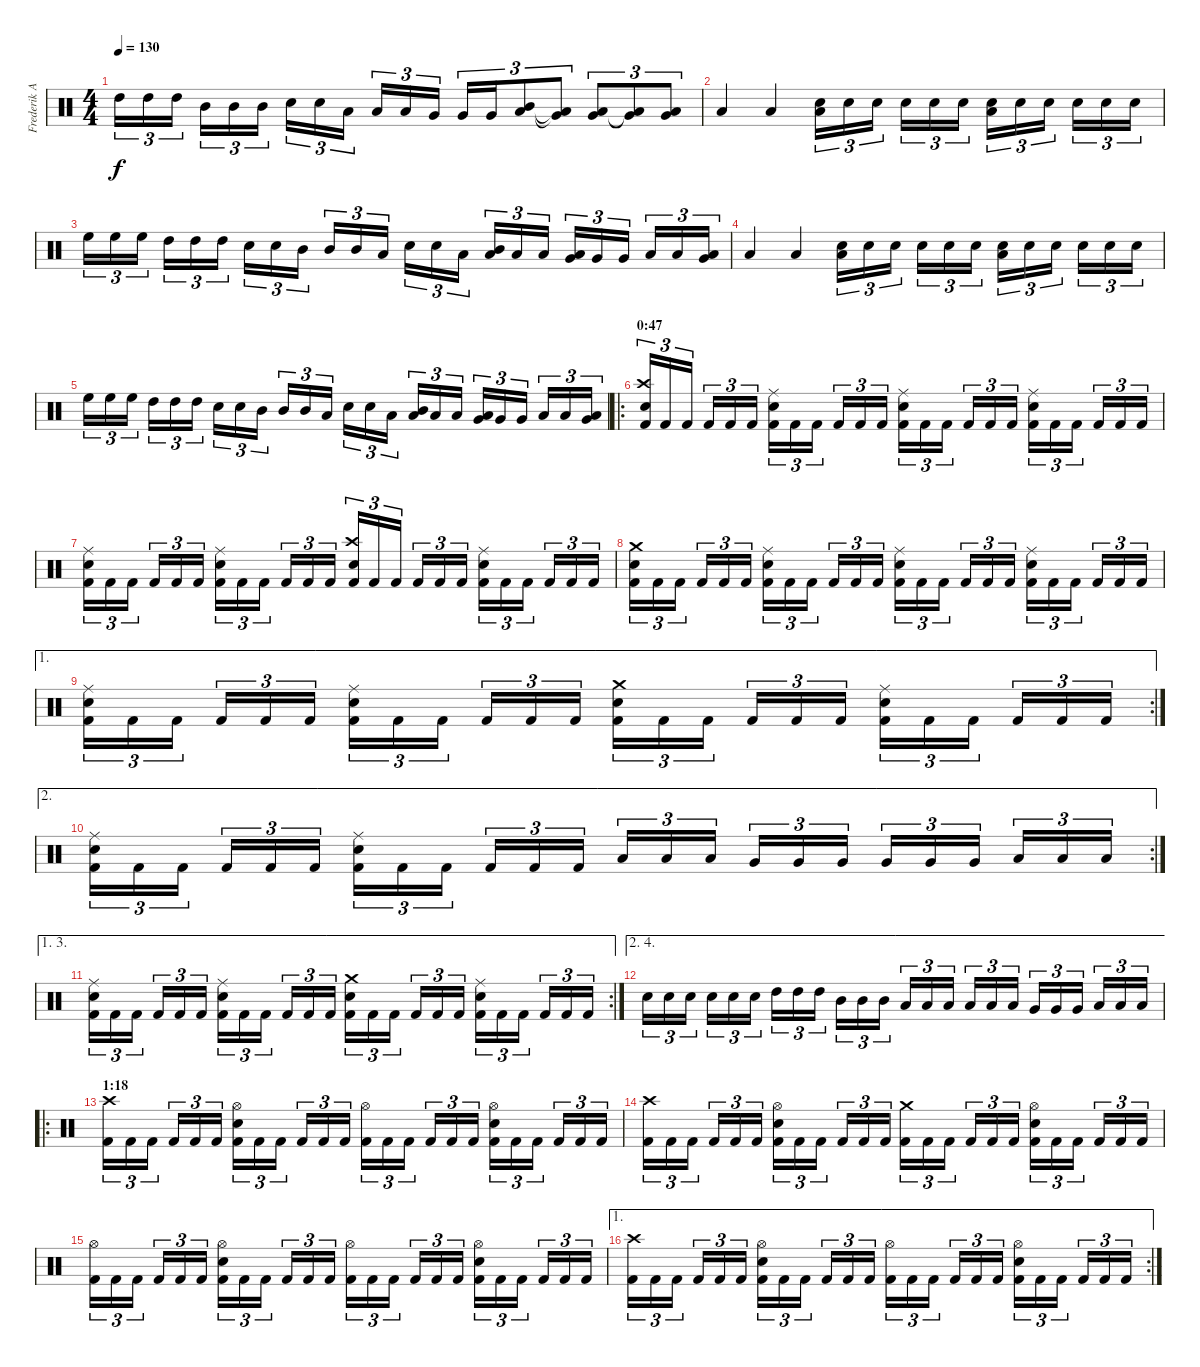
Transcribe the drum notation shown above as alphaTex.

\track ("Frederik Anderson" "Frederik A") {instrument percussion}
\staff {score}
\articulation defaults
\ts (4 4)
\tempo 130
\clef neutral
\ks c "High Tom (hit)".16{tu (3 2) dy f} "High Tom (hit)".16{tu (3 2)} "High Tom (hit)".16{tu (3 2)} "Mid Tom (hit)".16{tu (3 2)} "Mid Tom (hit)".16{tu (3 2)} "Mid Tom (hit)".16{tu (3 2)} "Electric Snare (hit)".16{tu (3 2)} "Electric Snare (hit)".16{tu (3 2)} "Low Tom (hit)".16{tu (3 2)} "Low Tom (hit)".16{tu (3 2)} "Low Tom (hit)".16{tu (3 2)} "Very Low Tom (hit)".16{tu (3 2)} "Very Low Tom (hit)".16{tu (3 2)} "Very Low Tom (hit)".16{tu (3 2)}
("Mid Tom (hit)" "Low Tom (hit)").8{tu (3 2)} ("Low Tom (hit)"{t} "Very Low Tom (hit)"{t}).8{tu (3 2)} ("Low Tom (hit)" "Very Low Tom (hit)").8{tu (3 2)} ("Very Low Tom (hit)"{t} "Low Floor Tom (hit)"{t}).8{tu (3 2)} ("Very Low Tom (hit)" "Low Floor Tom (hit)").8{tu (3 2)} |
"Low Floor Tom (hit)".4 "Low Floor Tom (hit)".4 ("Low Floor Tom (hit)" "Electric Snare (hit)").16{tu (3 2)} "Electric Snare (hit)".16{tu (3 2)} "Electric Snare (hit)".16{tu (3 2)} "Electric Snare (hit)".16{tu (3 2)} "Electric Snare (hit)".16{tu (3 2)} "Electric Snare (hit)".16{tu (3 2)} ("Low Floor Tom (hit)" "Electric Snare (hit)").16{tu (3 2)} "Electric Snare (hit)".16{tu (3 2)} "Electric Snare (hit)".16{tu (3 2)} "Electric Snare (hit)".16{tu (3 2)} "Electric Snare (hit)".16{tu (3 2)} "Electric Snare (hit)".16{tu (3 2)} |
"High Floor Tom (hit)".16{tu (3 2)} "High Floor Tom (hit)".16{tu (3 2)} "High Floor Tom (hit)".16{tu (3 2)} "High Tom (hit)".16{tu (3 2)} "High Tom (hit)".16{tu (3 2)} "High Tom (hit)".16{tu (3 2)} "Electric Snare (hit)".16{tu (3 2)} "Electric Snare (hit)".16{tu (3 2)} "Mid Tom (hit)".16{tu (3 2)} "Mid Tom (hit)".16{tu (3 2)} "Mid Tom (hit)".16{tu (3 2)} "Low Tom (hit)".16{tu (3 2)} "Electric Snare (hit)".16{tu (3 2)} "Electric Snare (hit)".16{tu (3 2)} "Low Tom (hit)".16{tu (3 2)} ("Mid Tom (hit)" "Low Tom (hit)").16{tu (3 2)} "Low Tom (hit)".16{tu (3 2)} "Low Tom (hit)".16{tu (3 2)} ("Low Tom (hit)" "Very Low Tom (hit)").16{tu (3 2)} "Very Low Tom (hit)".16{tu (3 2)} "Very Low Tom (hit)".16{tu (3 2)} "Low Floor Tom (hit)".16{tu (3 2)} "Low Floor Tom (hit)".16{tu (3 2)} ("Very Low Tom (hit)" "Low Floor Tom (hit)").16{tu (3 2)} |
"Low Floor Tom (hit)".4 "Low Floor Tom (hit)".4 ("Low Floor Tom (hit)" "Electric Snare (hit)").16{tu (3 2)} "Electric Snare (hit)".16{tu (3 2)} "Electric Snare (hit)".16{tu (3 2)} "Electric Snare (hit)".16{tu (3 2)} "Electric Snare (hit)".16{tu (3 2)} "Electric Snare (hit)".16{tu (3 2)} ("Low Floor Tom (hit)" "Electric Snare (hit)").16{tu (3 2)} "Electric Snare (hit)".16{tu (3 2)} "Electric Snare (hit)".16{tu (3 2)} "Electric Snare (hit)".16{tu (3 2)} "Electric Snare (hit)".16{tu (3 2)} "Electric Snare (hit)".16{tu (3 2)} |
"High Floor Tom (hit)".16{tu (3 2)} "High Floor Tom (hit)".16{tu (3 2)} "High Floor Tom (hit)".16{tu (3 2)} "High Tom (hit)".16{tu (3 2)} "High Tom (hit)".16{tu (3 2)} "High Tom (hit)".16{tu (3 2)} "Electric Snare (hit)".16{tu (3 2)} "Electric Snare (hit)".16{tu (3 2)} "Mid Tom (hit)".16{tu (3 2)} "Mid Tom (hit)".16{tu (3 2)} "Mid Tom (hit)".16{tu (3 2)} "Low Tom (hit)".16{tu (3 2)} "Electric Snare (hit)".16{tu (3 2)} "Electric Snare (hit)".16{tu (3 2)} "Low Tom (hit)".16{tu (3 2)} ("Mid Tom (hit)" "Low Tom (hit)").16{tu (3 2)} "Low Tom (hit)".16{tu (3 2)} "Low Tom (hit)".16{tu (3 2)} ("Low Tom (hit)" "Very Low Tom (hit)").16{tu (3 2)} "Very Low Tom (hit)".16{tu (3 2)} "Very Low Tom (hit)".16{tu (3 2)} "Low Floor Tom (hit)".16{tu (3 2)} "Low Floor Tom (hit)".16{tu (3 2)} ("Very Low Tom (hit)" "Low Floor Tom (hit)").16{tu (3 2)} |
\ro
\section ("" "0:47")
("Crash high (hit)" "Electric Snare (hit)" "Kick (hit) 2").16{tu (3 2)} "Kick (hit) 2".16{tu (3 2)} "Kick (hit) 2".16{tu (3 2)} "Kick (hit) 2".16{tu (3 2)} "Kick (hit) 2".16{tu (3 2)} "Kick (hit) 2".16{tu (3 2)} ("Ride (middle)" "Electric Snare (hit)" "Kick (hit) 2").16{tu (3 2)} "Kick (hit) 2".16{tu (3 2)} "Kick (hit) 2".16{tu (3 2)} "Kick (hit) 2".16{tu (3 2)} "Kick (hit) 2".16{tu (3 2)} "Kick (hit) 2".16{tu (3 2)} ("Ride (middle)" "Electric Snare (hit)" "Kick (hit) 2").16{tu (3 2)} "Kick (hit) 2".16{tu (3 2)} "Kick (hit) 2".16{tu (3 2)} "Kick (hit) 2".16{tu (3 2)} "Kick (hit) 2".16{tu (3 2)} "Kick (hit) 2".16{tu (3 2)} ("Ride (middle)" "Electric Snare (hit)" "Kick (hit) 2").16{tu (3 2)} "Kick (hit) 2".16{tu (3 2)} "Kick (hit) 2".16{tu (3 2)} "Kick (hit) 2".16{tu (3 2)} "Kick (hit) 2".16{tu (3 2)} "Kick (hit) 2".16{tu (3 2)} |
("Ride (middle)" "Electric Snare (hit)" "Kick (hit) 2").16{tu (3 2)} "Kick (hit) 2".16{tu (3 2)} "Kick (hit) 2".16{tu (3 2)} "Kick (hit) 2".16{tu (3 2)} "Kick (hit) 2".16{tu (3 2)} "Kick (hit) 2".16{tu (3 2)} ("Ride (middle)" "Electric Snare (hit)" "Kick (hit) 2").16{tu (3 2)} "Kick (hit) 2".16{tu (3 2)} "Kick (hit) 2".16{tu (3 2)} "Kick (hit) 2".16{tu (3 2)} "Kick (hit) 2".16{tu (3 2)} "Kick (hit) 2".16{tu (3 2)} ("Crash high (hit)" "Electric Snare (hit)" "Kick (hit) 2").16{tu (3 2)} "Kick (hit) 2".16{tu (3 2)} "Kick (hit) 2".16{tu (3 2)} "Kick (hit) 2".16{tu (3 2)} "Kick (hit) 2".16{tu (3 2)} "Kick (hit) 2".16{tu (3 2)} ("Ride (middle)" "Electric Snare (hit)" "Kick (hit) 2").16{tu (3 2)} "Kick (hit) 2".16{tu (3 2)} "Kick (hit) 2".16{tu (3 2)} "Kick (hit) 2".16{tu (3 2)} "Kick (hit) 2".16{tu (3 2)} "Kick (hit) 2".16{tu (3 2)} |
("Crash medium (hit)" "Electric Snare (hit)" "Kick (hit) 2").16{tu (3 2)} "Kick (hit) 2".16{tu (3 2)} "Kick (hit) 2".16{tu (3 2)} "Kick (hit) 2".16{tu (3 2)} "Kick (hit) 2".16{tu (3 2)} "Kick (hit) 2".16{tu (3 2)} ("Ride (middle)" "Electric Snare (hit)" "Kick (hit) 2").16{tu (3 2)} "Kick (hit) 2".16{tu (3 2)} "Kick (hit) 2".16{tu (3 2)} "Kick (hit) 2".16{tu (3 2)} "Kick (hit) 2".16{tu (3 2)} "Kick (hit) 2".16{tu (3 2)} ("Ride (middle)" "Electric Snare (hit)" "Kick (hit) 2").16{tu (3 2)} "Kick (hit) 2".16{tu (3 2)} "Kick (hit) 2".16{tu (3 2)} "Kick (hit) 2".16{tu (3 2)} "Kick (hit) 2".16{tu (3 2)} "Kick (hit) 2".16{tu (3 2)} ("Ride (middle)" "Electric Snare (hit)" "Kick (hit) 2").16{tu (3 2)} "Kick (hit) 2".16{tu (3 2)} "Kick (hit) 2".16{tu (3 2)} "Kick (hit) 2".16{tu (3 2)} "Kick (hit) 2".16{tu (3 2)} "Kick (hit) 2".16{tu (3 2)} |
\ae 1
\rc 2
("Ride (middle)" "Electric Snare (hit)" "Kick (hit) 2").16{tu (3 2)} "Kick (hit) 2".16{tu (3 2)} "Kick (hit) 2".16{tu (3 2)} "Kick (hit) 2".16{tu (3 2)} "Kick (hit) 2".16{tu (3 2)} "Kick (hit) 2".16{tu (3 2)} ("Ride (middle)" "Electric Snare (hit)" "Kick (hit) 2").16{tu (3 2)} "Kick (hit) 2".16{tu (3 2)} "Kick (hit) 2".16{tu (3 2)} "Kick (hit) 2".16{tu (3 2)} "Kick (hit) 2".16{tu (3 2)} "Kick (hit) 2".16{tu (3 2)} ("Crash medium (hit)" "Electric Snare (hit)" "Kick (hit) 2").16{tu (3 2)} "Kick (hit) 2".16{tu (3 2)} "Kick (hit) 2".16{tu (3 2)} "Kick (hit) 2".16{tu (3 2)} "Kick (hit) 2".16{tu (3 2)} "Kick (hit) 2".16{tu (3 2)} ("Ride (middle)" "Electric Snare (hit)" "Kick (hit) 2").16{tu (3 2)} "Kick (hit) 2".16{tu (3 2)} "Kick (hit) 2".16{tu (3 2)} "Kick (hit) 2".16{tu (3 2)} "Kick (hit) 2".16{tu (3 2)} "Kick (hit) 2".16{tu (3 2)} |
\ae 2
\rc 2
("Ride (middle)" "Electric Snare (hit)" "Kick (hit) 2").16{tu (3 2)} "Kick (hit) 2".16{tu (3 2)} "Kick (hit) 2".16{tu (3 2)} "Kick (hit) 2".16{tu (3 2)} "Kick (hit) 2".16{tu (3 2)} "Kick (hit) 2".16{tu (3 2)} ("Ride (middle)" "Electric Snare (hit)" "Kick (hit) 2").16{tu (3 2)} "Kick (hit) 2".16{tu (3 2)} "Kick (hit) 2".16{tu (3 2)} "Kick (hit) 2".16{tu (3 2)} "Kick (hit) 2".16{tu (3 2)} "Kick (hit) 2".16{tu (3 2)} "Low Tom (hit)".16{tu (3 2)} "Low Tom (hit)".16{tu (3 2)} "Low Tom (hit)".16{tu (3 2)} "Very Low Tom (hit)".16{tu (3 2)} "Very Low Tom (hit)".16{tu (3 2)} "Very Low Tom (hit)".16{tu (3 2)} "Very Low Tom (hit)".16{tu (3 2)} "Very Low Tom (hit)".16{tu (3 2)} "Very Low Tom (hit)".16{tu (3 2)} "Low Floor Tom (hit)".16{tu (3 2)} "Low Floor Tom (hit)".16{tu (3 2)} "Low Floor Tom (hit)".16{tu (3 2)} |
\ae (1 3)
\rc 2
("Ride (middle)" "Electric Snare (hit)" "Kick (hit) 2").16{tu (3 2)} "Kick (hit) 2".16{tu (3 2)} "Kick (hit) 2".16{tu (3 2)} "Kick (hit) 2".16{tu (3 2)} "Kick (hit) 2".16{tu (3 2)} "Kick (hit) 2".16{tu (3 2)} ("Ride (middle)" "Electric Snare (hit)" "Kick (hit) 2").16{tu (3 2)} "Kick (hit) 2".16{tu (3 2)} "Kick (hit) 2".16{tu (3 2)} "Kick (hit) 2".16{tu (3 2)} "Kick (hit) 2".16{tu (3 2)} "Kick (hit) 2".16{tu (3 2)} ("Crash medium (hit)" "Electric Snare (hit)" "Kick (hit) 2").16{tu (3 2)} "Kick (hit) 2".16{tu (3 2)} "Kick (hit) 2".16{tu (3 2)} "Kick (hit) 2".16{tu (3 2)} "Kick (hit) 2".16{tu (3 2)} "Kick (hit) 2".16{tu (3 2)} ("Ride (middle)" "Electric Snare (hit)" "Kick (hit) 2").16{tu (3 2)} "Kick (hit) 2".16{tu (3 2)} "Kick (hit) 2".16{tu (3 2)} "Kick (hit) 2".16{tu (3 2)} "Kick (hit) 2".16{tu (3 2)} "Kick (hit) 2".16{tu (3 2)} |
\ae (2 4)
"Electric Snare (hit)".16{tu (3 2)} "Electric Snare (hit)".16{tu (3 2)} "Electric Snare (hit)".16{tu (3 2)} "Electric Snare (hit)".16{tu (3 2)} "Electric Snare (hit)".16{tu (3 2)} "Electric Snare (hit)".16{tu (3 2)} "High Tom (hit)".16{tu (3 2)} "High Tom (hit)".16{tu (3 2)} "High Tom (hit)".16{tu (3 2)} "Mid Tom (hit)".16{tu (3 2)} "Mid Tom (hit)".16{tu (3 2)} "Mid Tom (hit)".16{tu (3 2)} "Low Tom (hit)".16{tu (3 2)} "Low Tom (hit)".16{tu (3 2)} "Low Tom (hit)".16{tu (3 2)} "Low Tom (hit)".16{tu (3 2)} "Low Tom (hit)".16{tu (3 2)} "Low Tom (hit)".16{tu (3 2)} "Very Low Tom (hit)".16{tu (3 2)} "Very Low Tom (hit)".16{tu (3 2)} "Very Low Tom (hit)".16{tu (3 2)} "Low Floor Tom (hit)".16{tu (3 2)} "Low Floor Tom (hit)".16{tu (3 2)} "Low Floor Tom (hit)".16{tu (3 2)} |
\ro
\section ("" "1:18")
("Crash high (hit)" "Kick (hit) 2").16{tu (3 2)} "Kick (hit) 2".16{tu (3 2)} "Kick (hit) 2".16{tu (3 2)} "Kick (hit) 2".16{tu (3 2)} "Kick (hit) 2".16{tu (3 2)} "Kick (hit) 2".16{tu (3 2)} ("Hi-Hat (open)" "Electric Snare (hit)" "Kick (hit) 2").16{tu (3 2)} "Kick (hit) 2".16{tu (3 2)} "Kick (hit) 2".16{tu (3 2)} "Kick (hit) 2".16{tu (3 2)} "Kick (hit) 2".16{tu (3 2)} "Kick (hit) 2".16{tu (3 2)} ("Hi-Hat (open)" "Kick (hit) 2").16{tu (3 2)} "Kick (hit) 2".16{tu (3 2)} "Kick (hit) 2".16{tu (3 2)} "Kick (hit) 2".16{tu (3 2)} "Kick (hit) 2".16{tu (3 2)} "Kick (hit) 2".16{tu (3 2)} ("Hi-Hat (open)" "Electric Snare (hit)" "Kick (hit) 2").16{tu (3 2)} "Kick (hit) 2".16{tu (3 2)} "Kick (hit) 2".16{tu (3 2)} "Kick (hit) 2".16{tu (3 2)} "Kick (hit) 2".16{tu (3 2)} "Kick (hit) 2".16{tu (3 2)} |
("Crash high (hit)" "Kick (hit) 2").16{tu (3 2)} "Kick (hit) 2".16{tu (3 2)} "Kick (hit) 2".16{tu (3 2)} "Kick (hit) 2".16{tu (3 2)} "Kick (hit) 2".16{tu (3 2)} "Kick (hit) 2".16{tu (3 2)} ("Hi-Hat (open)" "Electric Snare (hit)" "Kick (hit) 2").16{tu (3 2)} "Kick (hit) 2".16{tu (3 2)} "Kick (hit) 2".16{tu (3 2)} "Kick (hit) 2".16{tu (3 2)} "Kick (hit) 2".16{tu (3 2)} "Kick (hit) 2".16{tu (3 2)} ("Crash medium (hit)" "Kick (hit) 2").16{tu (3 2)} "Kick (hit) 2".16{tu (3 2)} "Kick (hit) 2".16{tu (3 2)} "Kick (hit) 2".16{tu (3 2)} "Kick (hit) 2".16{tu (3 2)} "Kick (hit) 2".16{tu (3 2)} ("Hi-Hat (open)" "Electric Snare (hit)" "Kick (hit) 2").16{tu (3 2)} "Kick (hit) 2".16{tu (3 2)} "Kick (hit) 2".16{tu (3 2)} "Kick (hit) 2".16{tu (3 2)} "Kick (hit) 2".16{tu (3 2)} "Kick (hit) 2".16{tu (3 2)} |
("Hi-Hat (open)" "Kick (hit) 2").16{tu (3 2)} "Kick (hit) 2".16{tu (3 2)} "Kick (hit) 2".16{tu (3 2)} "Kick (hit) 2".16{tu (3 2)} "Kick (hit) 2".16{tu (3 2)} "Kick (hit) 2".16{tu (3 2)} ("Hi-Hat (open)" "Electric Snare (hit)" "Kick (hit) 2").16{tu (3 2)} "Kick (hit) 2".16{tu (3 2)} "Kick (hit) 2".16{tu (3 2)} "Kick (hit) 2".16{tu (3 2)} "Kick (hit) 2".16{tu (3 2)} "Kick (hit) 2".16{tu (3 2)} ("Hi-Hat (open)" "Kick (hit) 2").16{tu (3 2)} "Kick (hit) 2".16{tu (3 2)} "Kick (hit) 2".16{tu (3 2)} "Kick (hit) 2".16{tu (3 2)} "Kick (hit) 2".16{tu (3 2)} "Kick (hit) 2".16{tu (3 2)} ("Hi-Hat (open)" "Electric Snare (hit)" "Kick (hit) 2").16{tu (3 2)} "Kick (hit) 2".16{tu (3 2)} "Kick (hit) 2".16{tu (3 2)} "Kick (hit) 2".16{tu (3 2)} "Kick (hit) 2".16{tu (3 2)} "Kick (hit) 2".16{tu (3 2)} |
\ae 1
\rc 2
("Crash high (hit)" "Kick (hit) 2").16{tu (3 2)} "Kick (hit) 2".16{tu (3 2)} "Kick (hit) 2".16{tu (3 2)} "Kick (hit) 2".16{tu (3 2)} "Kick (hit) 2".16{tu (3 2)} "Kick (hit) 2".16{tu (3 2)} ("Hi-Hat (open)" "Electric Snare (hit)" "Kick (hit) 2").16{tu (3 2)} "Kick (hit) 2".16{tu (3 2)} "Kick (hit) 2".16{tu (3 2)} "Kick (hit) 2".16{tu (3 2)} "Kick (hit) 2".16{tu (3 2)} "Kick (hit) 2".16{tu (3 2)} ("Hi-Hat (open)" "Kick (hit) 2").16{tu (3 2)} "Kick (hit) 2".16{tu (3 2)} "Kick (hit) 2".16{tu (3 2)} "Kick (hit) 2".16{tu (3 2)} "Kick (hit) 2".16{tu (3 2)} "Kick (hit) 2".16{tu (3 2)} ("Hi-Hat (open)" "Electric Snare (hit)" "Kick (hit) 2").16{tu (3 2)} "Kick (hit) 2".16{tu (3 2)} "Kick (hit) 2".16{tu (3 2)} "Kick (hit) 2".16{tu (3 2)} "Kick (hit) 2".16{tu (3 2)} "Kick (hit) 2".16{tu (3 2)}
